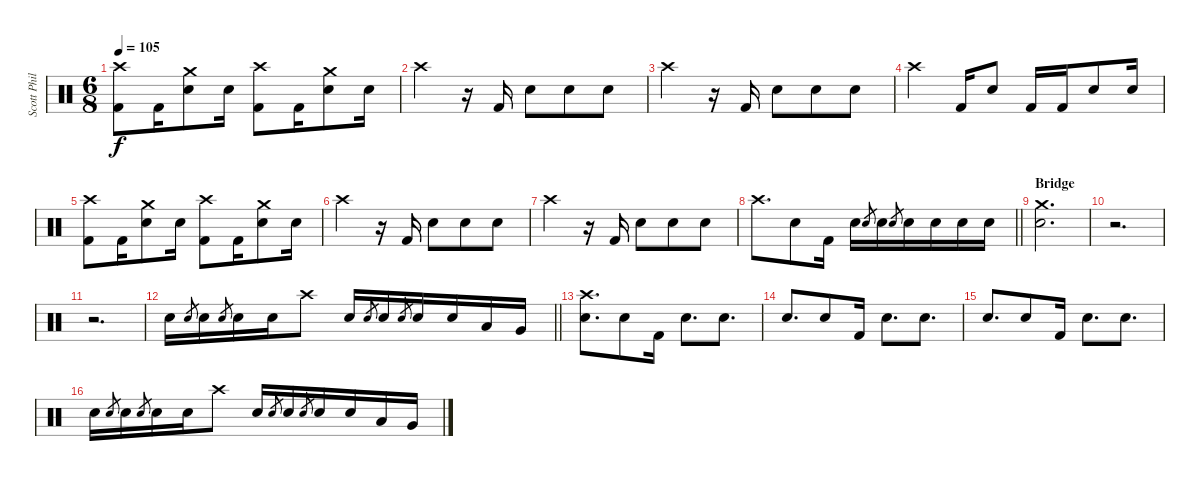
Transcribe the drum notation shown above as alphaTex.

\track ("Scott Phillips (Drums)" "Scott Phil") {instrument percussion}
\staff {score}
\articulation defaults
\ts (6 8)
\tempo 105
\clef neutral
\ks c
("Crash high (hit)" "Kick (hit) 2").8{dy f} "Kick (hit) 2".16 ("Crash medium (hit)" "Electric Snare (hit)").8 "Electric Snare (hit)".16 ("Crash high (hit)" "Kick (hit) 2").8 "Kick (hit) 2".16 ("Crash medium (hit)" "Electric Snare (hit)").8 "Electric Snare (hit)".16 |
"Crash high (hit)".4 r.16 "Kick (hit) 2".16 "Electric Snare (hit)".8 "Electric Snare (hit)".8 "Electric Snare (hit)".8 |
"Crash high (hit)".4 r.16 "Kick (hit) 2".16 "Electric Snare (hit)".8 "Electric Snare (hit)".8 "Electric Snare (hit)".8 |
"Crash high (hit)".4 "Kick (hit) 2".16 "Electric Snare (hit)".8 "Kick (hit) 2".16 "Kick (hit) 2".16 "Electric Snare (hit)".8 "Electric Snare (hit)".16 |
("Crash high (hit)" "Kick (hit) 2").8 "Kick (hit) 2".16 ("Crash medium (hit)" "Electric Snare (hit)").8 "Electric Snare (hit)".16 ("Crash high (hit)" "Kick (hit) 2").8 "Kick (hit) 2".16 ("Crash medium (hit)" "Electric Snare (hit)").8 "Electric Snare (hit)".16 |
"Crash high (hit)".4 r.16 "Kick (hit) 2".16 "Electric Snare (hit)".8 "Electric Snare (hit)".8 "Electric Snare (hit)".8 |
"Crash high (hit)".4 r.16 "Kick (hit) 2".16 "Electric Snare (hit)".8 "Electric Snare (hit)".8 "Electric Snare (hit)".8 |
\barLineRight lightlight "Crash high (hit)".8{d} "Electric Snare (hit)".8 "Kick (hit) 2".16 "Electric Snare (hit)".16 "Electric Snare (hit)".8{gr} "Electric Snare (hit)".16 "Electric Snare (hit)".8{gr} "Electric Snare (hit)".16 "Electric Snare (hit)".16 "Electric Snare (hit)".16 "Electric Snare (hit)".16
|
\section ("" "Bridge")
("Crash medium (hit)" "Electric Snare (hit)").2{d} |
r.2{d} |
r.2{d} |
\barLineRight lightlight "Electric Snare (hit)".16 "Electric Snare (hit)".8{gr} "Electric Snare (hit)".16 "Electric Snare (hit)".8{gr} "Electric Snare (hit)".16 "Electric Snare (hit)".16 "Crash high (hit)".8 "Electric Snare (hit)".16 "Electric Snare (hit)".8{gr} "Electric Snare (hit)".16 "Electric Snare (hit)".8{gr} "Electric Snare (hit)".16 "Electric Snare (hit)".16 "Low Tom (hit)".16 "Very Low Tom (hit)".16
|
("Crash high (hit)" "Electric Snare (hit)").8{d} "Electric Snare (hit)".8 "Kick (hit) 2".16 "Electric Snare (hit)".8{d} "Electric Snare (hit)".8{d} |
"Electric Snare (hit)".8{d} "Electric Snare (hit)".8 "Kick (hit) 2".16 "Electric Snare (hit)".8{d} "Electric Snare (hit)".8{d} |
"Electric Snare (hit)".8{d} "Electric Snare (hit)".8 "Kick (hit) 2".16 "Electric Snare (hit)".8{d} "Electric Snare (hit)".8{d} |
"Electric Snare (hit)".16 "Electric Snare (hit)".8{gr} "Electric Snare (hit)".16 "Electric Snare (hit)".8{gr} "Electric Snare (hit)".16 "Electric Snare (hit)".16 "Crash high (hit)".8 "Electric Snare (hit)".16 "Electric Snare (hit)".8{gr} "Electric Snare (hit)".16 "Electric Snare (hit)".8{gr} "Electric Snare (hit)".16 "Electric Snare (hit)".16 "Low Tom (hit)".16 "Very Low Tom (hit)".16
